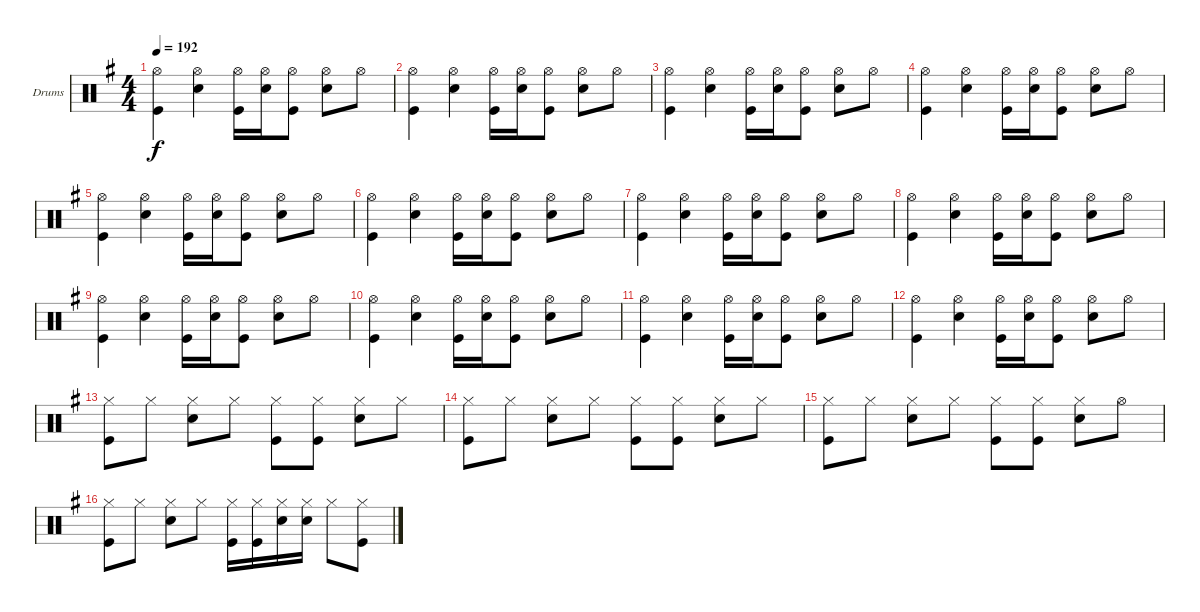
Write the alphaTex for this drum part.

\defaultSystemsLayout 4
\bracketExtendMode groupsimilarinstruments
\firstSystemTrackNameOrientation horizontal
\otherSystemsTrackNameOrientation horizontal
\track ("Drumkit" "Drums") {instrument percussion}
\staff {score}
\articulation defaults
\ts (4 4)
\tempo 192
\clef neutral
\scale
1.04288
\ks g
("Hi-Hat (open)" "Kick (hit)").4{dy f} ("Hi-Hat (open)" "Snare (hit) 2").4 ("Hi-Hat (open)" "Kick (hit)").16 ("Hi-Hat (open)" "Snare (hit) 2").16 ("Hi-Hat (open)" "Kick (hit)").8 ("Hi-Hat (open)" "Snare (hit) 2").8 "Hi-Hat (open)".8 |
\scale
0.957125 ("Hi-Hat (open)" "Kick (hit)").4 ("Hi-Hat (open)" "Snare (hit) 2").4 ("Hi-Hat (open)" "Kick (hit)").16 ("Hi-Hat (open)" "Snare (hit) 2").16 ("Hi-Hat (open)" "Kick (hit)").8 ("Hi-Hat (open)" "Snare (hit) 2").8 "Hi-Hat (open)".8 |
\scale
1.04288 ("Hi-Hat (open)" "Kick (hit)").4 ("Hi-Hat (open)" "Snare (hit) 2").4 ("Hi-Hat (open)" "Kick (hit)").16 ("Hi-Hat (open)" "Snare (hit) 2").16 ("Hi-Hat (open)" "Kick (hit)").8 ("Hi-Hat (open)" "Snare (hit) 2").8 "Hi-Hat (open)".8 |
\scale
0.957125 ("Hi-Hat (open)" "Kick (hit)").4 ("Hi-Hat (open)" "Snare (hit) 2").4 ("Hi-Hat (open)" "Kick (hit)").16 ("Hi-Hat (open)" "Snare (hit) 2").16 ("Hi-Hat (open)" "Kick (hit)").8 ("Hi-Hat (open)" "Snare (hit) 2").8 "Hi-Hat (open)".8 |
\scale
1.04288 ("Hi-Hat (open)" "Kick (hit)").4 ("Hi-Hat (open)" "Snare (hit) 2").4 ("Hi-Hat (open)" "Kick (hit)").16 ("Hi-Hat (open)" "Snare (hit) 2").16 ("Hi-Hat (open)" "Kick (hit)").8 ("Hi-Hat (open)" "Snare (hit) 2").8 "Hi-Hat (open)".8 |
\scale
0.957125 ("Hi-Hat (open)" "Kick (hit)").4 ("Hi-Hat (open)" "Snare (hit) 2").4 ("Hi-Hat (open)" "Kick (hit)").16 ("Hi-Hat (open)" "Snare (hit) 2").16 ("Hi-Hat (open)" "Kick (hit)").8 ("Hi-Hat (open)" "Snare (hit) 2").8 "Hi-Hat (open)".8 |
\scale
1.04288 ("Hi-Hat (open)" "Kick (hit)").4 ("Hi-Hat (open)" "Snare (hit) 2").4 ("Hi-Hat (open)" "Kick (hit)").16 ("Hi-Hat (open)" "Snare (hit) 2").16 ("Hi-Hat (open)" "Kick (hit)").8 ("Hi-Hat (open)" "Snare (hit) 2").8 "Hi-Hat (open)".8 |
\scale
0.957125 ("Hi-Hat (open)" "Kick (hit)").4 ("Hi-Hat (open)" "Snare (hit) 2").4 ("Hi-Hat (open)" "Kick (hit)").16 ("Hi-Hat (open)" "Snare (hit) 2").16 ("Hi-Hat (open)" "Kick (hit)").8 ("Hi-Hat (open)" "Snare (hit) 2").8 "Hi-Hat (open)".8 |
\scale
1.04288 ("Hi-Hat (open)" "Kick (hit)").4 ("Hi-Hat (open)" "Snare (hit) 2").4 ("Hi-Hat (open)" "Kick (hit)").16 ("Hi-Hat (open)" "Snare (hit) 2").16 ("Hi-Hat (open)" "Kick (hit)").8 ("Hi-Hat (open)" "Snare (hit) 2").8 "Hi-Hat (open)".8 |
\scale
0.957125 ("Hi-Hat (open)" "Kick (hit)").4 ("Hi-Hat (open)" "Snare (hit) 2").4 ("Hi-Hat (open)" "Kick (hit)").16 ("Hi-Hat (open)" "Snare (hit) 2").16 ("Hi-Hat (open)" "Kick (hit)").8 ("Hi-Hat (open)" "Snare (hit) 2").8 "Hi-Hat (open)".8 |
\scale
1.04288 ("Hi-Hat (open)" "Kick (hit)").4 ("Hi-Hat (open)" "Snare (hit) 2").4 ("Hi-Hat (open)" "Kick (hit)").16 ("Hi-Hat (open)" "Snare (hit) 2").16 ("Hi-Hat (open)" "Kick (hit)").8 ("Hi-Hat (open)" "Snare (hit) 2").8 "Hi-Hat (open)".8 |
\scale
0.957125 ("Hi-Hat (open)" "Kick (hit)").4 ("Hi-Hat (open)" "Snare (hit) 2").4 ("Hi-Hat (open)" "Kick (hit)").16 ("Hi-Hat (open)" "Snare (hit) 2").16 ("Hi-Hat (open)" "Kick (hit)").8 ("Hi-Hat (open)" "Snare (hit) 2").8 "Hi-Hat (open)".8 |
\scale
1.04288 ("Hi-Hat (closed)" "Kick (hit)").8 "Hi-Hat (closed)".8 ("Hi-Hat (closed)" "Snare (hit) 2").8 "Hi-Hat (closed)".8 ("Hi-Hat (closed)" "Kick (hit)").8 ("Hi-Hat (closed)" "Kick (hit)").8 ("Hi-Hat (closed)" "Snare (hit) 2").8 "Hi-Hat (closed)".8 |
\scale
0.957125 ("Hi-Hat (closed)" "Kick (hit)").8 "Hi-Hat (closed)".8 ("Hi-Hat (closed)" "Snare (hit) 2").8 "Hi-Hat (closed)".8 ("Hi-Hat (closed)" "Kick (hit)").8 ("Hi-Hat (closed)" "Kick (hit)").8 ("Hi-Hat (closed)" "Snare (hit) 2").8 "Hi-Hat (closed)".8 |
\scale
1.04288 ("Hi-Hat (closed)" "Kick (hit)").8 "Hi-Hat (closed)".8 ("Hi-Hat (closed)" "Snare (hit) 2").8 "Hi-Hat (closed)".8 ("Hi-Hat (closed)" "Kick (hit)").8 ("Hi-Hat (closed)" "Kick (hit)").8 ("Hi-Hat (closed)" "Snare (hit) 2").8 "Hi-Hat (open)".8 |
\scale
0.957125 ("Hi-Hat (closed)" "Kick (hit)").8 "Hi-Hat (closed)".8 ("Hi-Hat (closed)" "Snare (hit) 2").8 "Hi-Hat (closed)".8 ("Hi-Hat (closed)" "Kick (hit)").16 ("Hi-Hat (closed)" "Kick (hit)").16 ("Hi-Hat (closed)" "Snare (hit) 2").16 ("Hi-Hat (closed)" "Snare (hit) 2").16 "Hi-Hat (closed)".8 ("Hi-Hat (closed)" "Kick (hit)").8
